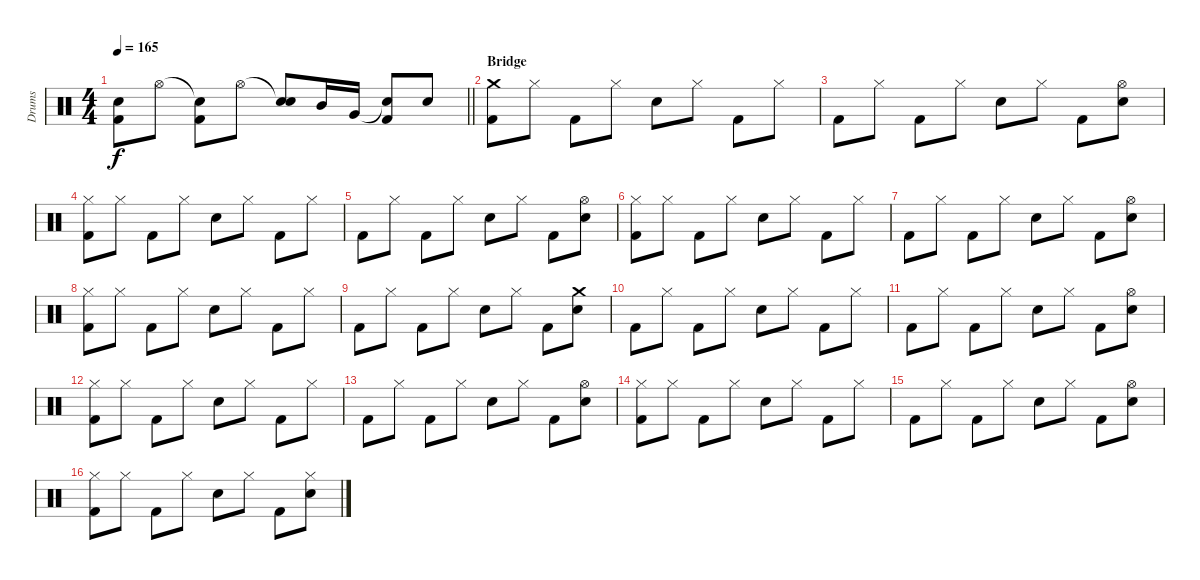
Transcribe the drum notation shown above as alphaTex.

\track ("Drums" "Drums") {instrument percussion}
\staff {score}
\articulation defaults
\ts (4 4)
\tempo 165
\clef neutral
\barLineRight lightlight
\ks c
("Snare (hit)"{t} "Kick (hit) 2").8{dy f} "Hi-Hat (open)".8 ("Snare (hit)"{t} "Kick (hit) 2").8 "Hi-Hat (open)".8 ("Snare (hit)"{t} "Electric Snare (hit)").8 "Mid Tom (hit)".16 "Very Low Tom (hit)".16 ("Snare (hit)"{t} "Kick (hit) 2").8 "Electric Snare (hit)".8 |
\section ("" "Bridge")
("Crash medium (hit)" "Kick (hit) 2").8 "Hi-Hat (closed)".8 "Kick (hit) 2".8 "Hi-Hat (closed)".8 "Electric Snare (hit)".8 "Hi-Hat (closed)".8 "Kick (hit) 2".8 "Hi-Hat (closed)".8 |
"Kick (hit) 2".8 "Hi-Hat (closed)".8 "Kick (hit) 2".8 "Hi-Hat (closed)".8 "Electric Snare (hit)".8 "Hi-Hat (closed)".8 "Kick (hit) 2".8 ("Hi-Hat (open)" "Electric Snare (hit)").8 |
("Hi-Hat (closed)" "Kick (hit) 2").8 "Hi-Hat (closed)".8 "Kick (hit) 2".8 "Hi-Hat (closed)".8 "Electric Snare (hit)".8 "Hi-Hat (closed)".8 "Kick (hit) 2".8 "Hi-Hat (closed)".8 |
"Kick (hit) 2".8 "Hi-Hat (closed)".8 "Kick (hit) 2".8 "Hi-Hat (closed)".8 "Electric Snare (hit)".8 "Hi-Hat (closed)".8 "Kick (hit) 2".8 ("Hi-Hat (open)" "Electric Snare (hit)").8 |
("Hi-Hat (closed)" "Kick (hit) 2").8 "Hi-Hat (closed)".8 "Kick (hit) 2".8 "Hi-Hat (closed)".8 "Electric Snare (hit)".8 "Hi-Hat (closed)".8 "Kick (hit) 2".8 "Hi-Hat (closed)".8 |
"Kick (hit) 2".8 "Hi-Hat (closed)".8 "Kick (hit) 2".8 "Hi-Hat (closed)".8 "Electric Snare (hit)".8 "Hi-Hat (closed)".8 "Kick (hit) 2".8 ("Hi-Hat (open)" "Electric Snare (hit)").8 |
("Hi-Hat (closed)" "Kick (hit) 2").8 "Hi-Hat (closed)".8 "Kick (hit) 2".8 "Hi-Hat (closed)".8 "Electric Snare (hit)".8 "Hi-Hat (closed)".8 "Kick (hit) 2".8 "Hi-Hat (closed)".8 |
"Kick (hit) 2".8 "Hi-Hat (closed)".8 "Kick (hit) 2".8 "Hi-Hat (closed)".8 "Electric Snare (hit)".8 "Hi-Hat (closed)".8 "Kick (hit) 2".8 ("Crash medium (hit)" "Electric Snare (hit)").8 |
"Kick (hit) 2".8 "Hi-Hat (closed)".8 "Kick (hit) 2".8 "Hi-Hat (closed)".8 "Electric Snare (hit)".8 "Hi-Hat (closed)".8 "Kick (hit) 2".8 "Hi-Hat (closed)".8 |
"Kick (hit) 2".8 "Hi-Hat (closed)".8 "Kick (hit) 2".8 "Hi-Hat (closed)".8 "Electric Snare (hit)".8 "Hi-Hat (closed)".8 "Kick (hit) 2".8 ("Hi-Hat (open)" "Electric Snare (hit)").8 |
("Hi-Hat (closed)" "Kick (hit) 2").8 "Hi-Hat (closed)".8 "Kick (hit) 2".8 "Hi-Hat (closed)".8 "Electric Snare (hit)".8 "Hi-Hat (closed)".8 "Kick (hit) 2".8 "Hi-Hat (closed)".8 |
"Kick (hit) 2".8 "Hi-Hat (closed)".8 "Kick (hit) 2".8 "Hi-Hat (closed)".8 "Electric Snare (hit)".8 "Hi-Hat (closed)".8 "Kick (hit) 2".8 ("Hi-Hat (open)" "Electric Snare (hit)").8 |
("Hi-Hat (closed)" "Kick (hit) 2").8 "Hi-Hat (closed)".8 "Kick (hit) 2".8 "Hi-Hat (closed)".8 "Electric Snare (hit)".8 "Hi-Hat (closed)".8 "Kick (hit) 2".8 "Hi-Hat (closed)".8 |
"Kick (hit) 2".8 "Hi-Hat (closed)".8 "Kick (hit) 2".8 "Hi-Hat (closed)".8 "Electric Snare (hit)".8 "Hi-Hat (closed)".8 "Kick (hit) 2".8 ("Hi-Hat (open)" "Electric Snare (hit)").8 |
("Hi-Hat (closed)" "Kick (hit) 2").8 "Hi-Hat (closed)".8 "Kick (hit) 2".8 "Hi-Hat (closed)".8 "Electric Snare (hit)".8 "Hi-Hat (closed)".8 "Kick (hit) 2".8 ("Hi-Hat (closed)" "Electric Snare (hit)").8
